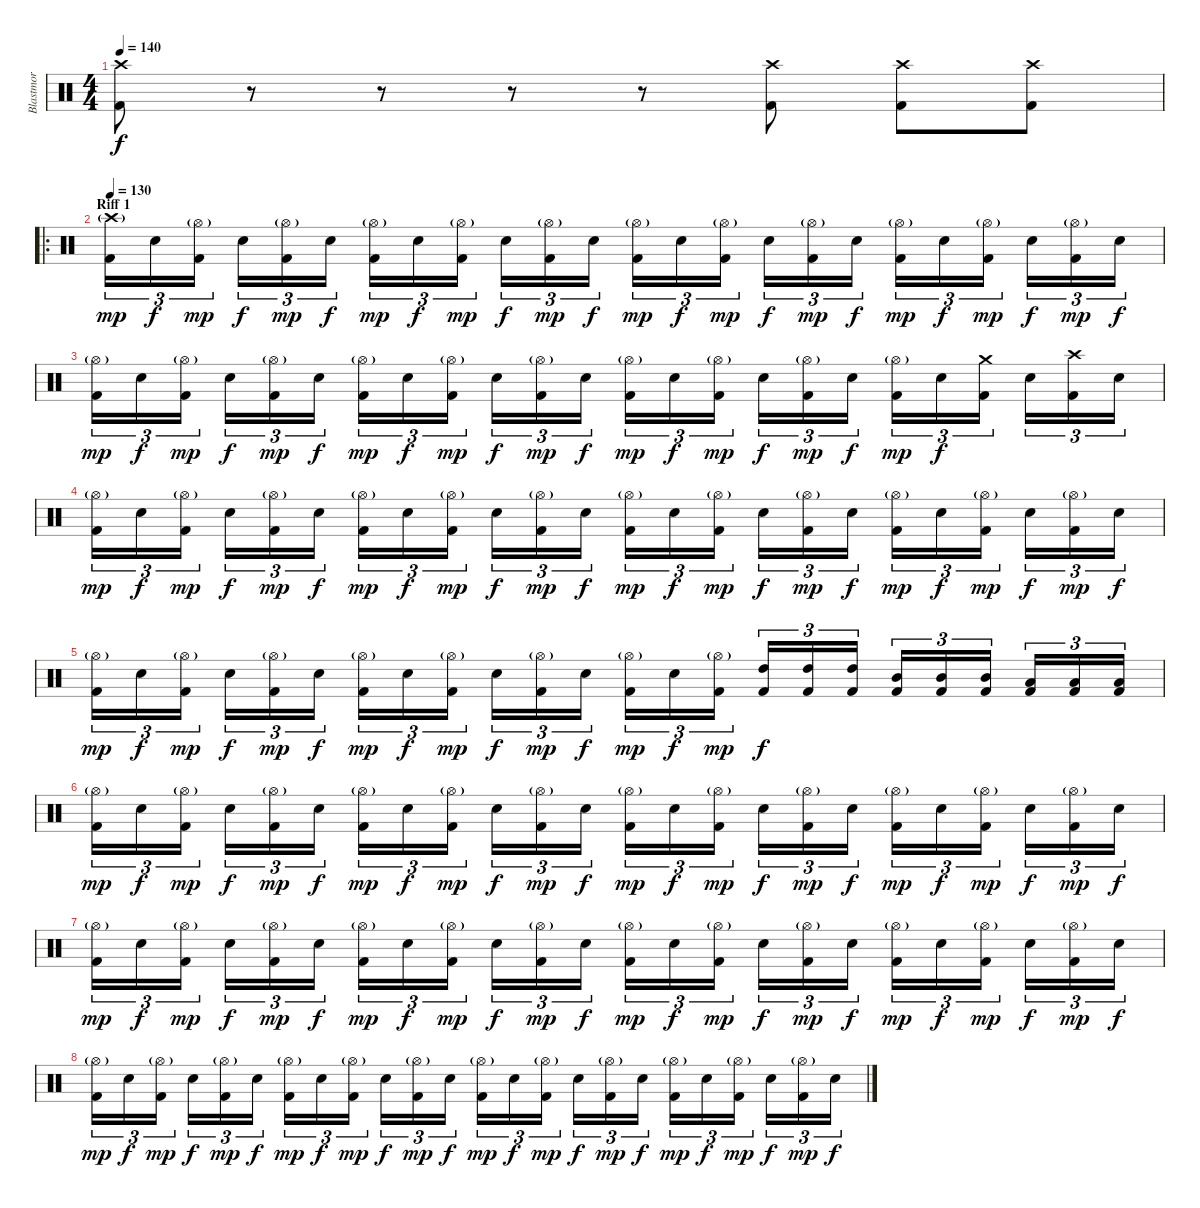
\track ("Blastmor" "Blastmor") {instrument percussion}
\staff {score}
\articulation defaults
\ts (4 4)
\section ("" "")
\tempo 130
\tempo 140
\clef neutral
\ks c
("Crash high (hit)" "Kick (hit) 2").8{dy f} r.8 r.8 r.8 r.8 ("Crash high (hit)" "Kick (hit) 2").8 ("Crash high (hit)" "Kick (hit) 2").8 ("Crash high (hit)" "Kick (hit) 2").8 |
\ro
\section ("" "Riff 1")
\tempo 130
("Crash high (hit)"{g} "Kick (hit) 2").16{tu (3 2) dy mp} "Electric Snare (hit)".16{tu (3 2) dy f} ("Hi-Hat (open)"{g} "Kick (hit) 2").16{tu (3 2) dy mp} "Electric Snare (hit)".16{tu (3 2) dy f} ("Hi-Hat (open)"{g} "Kick (hit) 2").16{tu (3 2) dy mp} "Electric Snare (hit)".16{tu (3 2) dy f} ("Hi-Hat (open)"{g} "Kick (hit) 2").16{tu (3 2) dy mp} "Electric Snare (hit)".16{tu (3 2) dy f} ("Hi-Hat (open)"{g} "Kick (hit) 2").16{tu (3 2) dy mp} "Electric Snare (hit)".16{tu (3 2) dy f} ("Hi-Hat (open)"{g} "Kick (hit) 2").16{tu (3 2) dy mp} "Electric Snare (hit)".16{tu (3 2) dy f} ("Hi-Hat (open)"{g} "Kick (hit) 2").16{tu (3 2) dy mp} "Electric Snare (hit)".16{tu (3 2) dy f} ("Hi-Hat (open)"{g} "Kick (hit) 2").16{tu (3 2) dy mp} "Electric Snare (hit)".16{tu (3 2) dy f} ("Hi-Hat (open)"{g} "Kick (hit) 2").16{tu (3 2) dy mp} "Electric Snare (hit)".16{tu (3 2) dy f} ("Hi-Hat (open)"{g} "Kick (hit) 2").16{tu (3 2) dy mp} "Electric Snare (hit)".16{tu (3 2) dy f} ("Hi-Hat (open)"{g} "Kick (hit) 2").16{tu (3 2) dy mp} "Electric Snare (hit)".16{tu (3 2) dy f} ("Hi-Hat (open)"{g} "Kick (hit) 2").16{tu (3 2) dy mp} "Electric Snare (hit)".16{tu (3 2) dy f} |
("Hi-Hat (open)"{g} "Kick (hit) 2").16{tu (3 2) dy mp} "Electric Snare (hit)".16{tu (3 2) dy f} ("Hi-Hat (open)"{g} "Kick (hit) 2").16{tu (3 2) dy mp} "Electric Snare (hit)".16{tu (3 2) dy f} ("Hi-Hat (open)"{g} "Kick (hit) 2").16{tu (3 2) dy mp} "Electric Snare (hit)".16{tu (3 2) dy f} ("Hi-Hat (open)"{g} "Kick (hit) 2").16{tu (3 2) dy mp} "Electric Snare (hit)".16{tu (3 2) dy f} ("Hi-Hat (open)"{g} "Kick (hit) 2").16{tu (3 2) dy mp} "Electric Snare (hit)".16{tu (3 2) dy f} ("Hi-Hat (open)"{g} "Kick (hit) 2").16{tu (3 2) dy mp} "Electric Snare (hit)".16{tu (3 2) dy f} ("Hi-Hat (open)"{g} "Kick (hit) 2").16{tu (3 2) dy mp} "Electric Snare (hit)".16{tu (3 2) dy f} ("Hi-Hat (open)"{g} "Kick (hit) 2").16{tu (3 2) dy mp} "Electric Snare (hit)".16{tu (3 2) dy f} ("Hi-Hat (open)"{g} "Kick (hit) 2").16{tu (3 2) dy mp} "Electric Snare (hit)".16{tu (3 2) dy f} ("Hi-Hat (open)"{g} "Kick (hit) 2").16{tu (3 2) dy mp} "Electric Snare (hit)".16{tu (3 2) dy f} ("Crash medium (hit)" "Kick (hit) 2").16{tu (3 2)} "Electric Snare (hit)".16{tu (3 2)} ("Crash high (hit)" "Kick (hit) 2").16{tu (3 2)} "Electric Snare (hit)".16{tu (3 2)} |
("Hi-Hat (open)"{g} "Kick (hit) 2").16{tu (3 2) dy mp} "Electric Snare (hit)".16{tu (3 2) dy f} ("Hi-Hat (open)"{g} "Kick (hit) 2").16{tu (3 2) dy mp} "Electric Snare (hit)".16{tu (3 2) dy f} ("Hi-Hat (open)"{g} "Kick (hit) 2").16{tu (3 2) dy mp} "Electric Snare (hit)".16{tu (3 2) dy f} ("Hi-Hat (open)"{g} "Kick (hit) 2").16{tu (3 2) dy mp} "Electric Snare (hit)".16{tu (3 2) dy f} ("Hi-Hat (open)"{g} "Kick (hit) 2").16{tu (3 2) dy mp} "Electric Snare (hit)".16{tu (3 2) dy f} ("Hi-Hat (open)"{g} "Kick (hit) 2").16{tu (3 2) dy mp} "Electric Snare (hit)".16{tu (3 2) dy f} ("Hi-Hat (open)"{g} "Kick (hit) 2").16{tu (3 2) dy mp} "Electric Snare (hit)".16{tu (3 2) dy f} ("Hi-Hat (open)"{g} "Kick (hit) 2").16{tu (3 2) dy mp} "Electric Snare (hit)".16{tu (3 2) dy f} ("Hi-Hat (open)"{g} "Kick (hit) 2").16{tu (3 2) dy mp} "Electric Snare (hit)".16{tu (3 2) dy f} ("Hi-Hat (open)"{g} "Kick (hit) 2").16{tu (3 2) dy mp} "Electric Snare (hit)".16{tu (3 2) dy f} ("Hi-Hat (open)"{g} "Kick (hit) 2").16{tu (3 2) dy mp} "Electric Snare (hit)".16{tu (3 2) dy f} ("Hi-Hat (open)"{g} "Kick (hit) 2").16{tu (3 2) dy mp} "Electric Snare (hit)".16{tu (3 2) dy f} |
("Hi-Hat (open)"{g} "Kick (hit) 2").16{tu (3 2) dy mp} "Electric Snare (hit)".16{tu (3 2) dy f} ("Hi-Hat (open)"{g} "Kick (hit) 2").16{tu (3 2) dy mp} "Electric Snare (hit)".16{tu (3 2) dy f} ("Hi-Hat (open)"{g} "Kick (hit) 2").16{tu (3 2) dy mp} "Electric Snare (hit)".16{tu (3 2) dy f} ("Hi-Hat (open)"{g} "Kick (hit) 2").16{tu (3 2) dy mp} "Electric Snare (hit)".16{tu (3 2) dy f} ("Hi-Hat (open)"{g} "Kick (hit) 2").16{tu (3 2) dy mp} "Electric Snare (hit)".16{tu (3 2) dy f} ("Hi-Hat (open)"{g} "Kick (hit) 2").16{tu (3 2) dy mp} "Electric Snare (hit)".16{tu (3 2) dy f} ("Hi-Hat (open)"{g} "Kick (hit) 2").16{tu (3 2) dy mp} "Electric Snare (hit)".16{tu (3 2) dy f} ("Hi-Hat (open)"{g} "Kick (hit) 2").16{tu (3 2) dy mp} ("High Tom (hit)" "Kick (hit) 2").16{tu (3 2) dy f} ("High Tom (hit)" "Kick (hit) 2").16{tu (3 2)} ("High Tom (hit)" "Kick (hit) 2").16{tu (3 2)} ("Mid Tom (hit)" "Kick (hit) 2").16{tu (3 2)} ("Mid Tom (hit)" "Kick (hit) 2").16{tu (3 2)} ("Mid Tom (hit)" "Kick (hit) 2").16{tu (3 2)} ("Low Tom (hit)" "Kick (hit) 2").16{tu (3 2)} ("Low Tom (hit)" "Kick (hit) 2").16{tu (3 2)} ("Low Tom (hit)" "Kick (hit) 2").16{tu (3 2)} |
("Hi-Hat (open)"{g} "Kick (hit) 2").16{tu (3 2) dy mp} "Electric Snare (hit)".16{tu (3 2) dy f} ("Hi-Hat (open)"{g} "Kick (hit) 2").16{tu (3 2) dy mp} "Electric Snare (hit)".16{tu (3 2) dy f} ("Hi-Hat (open)"{g} "Kick (hit) 2").16{tu (3 2) dy mp} "Electric Snare (hit)".16{tu (3 2) dy f} ("Hi-Hat (open)"{g} "Kick (hit) 2").16{tu (3 2) dy mp} "Electric Snare (hit)".16{tu (3 2) dy f} ("Hi-Hat (open)"{g} "Kick (hit) 2").16{tu (3 2) dy mp} "Electric Snare (hit)".16{tu (3 2) dy f} ("Hi-Hat (open)"{g} "Kick (hit) 2").16{tu (3 2) dy mp} "Electric Snare (hit)".16{tu (3 2) dy f} ("Hi-Hat (open)"{g} "Kick (hit) 2").16{tu (3 2) dy mp} "Electric Snare (hit)".16{tu (3 2) dy f} ("Hi-Hat (open)"{g} "Kick (hit) 2").16{tu (3 2) dy mp} "Electric Snare (hit)".16{tu (3 2) dy f} ("Hi-Hat (open)"{g} "Kick (hit) 2").16{tu (3 2) dy mp} "Electric Snare (hit)".16{tu (3 2) dy f} ("Hi-Hat (open)"{g} "Kick (hit) 2").16{tu (3 2) dy mp} "Electric Snare (hit)".16{tu (3 2) dy f} ("Hi-Hat (open)"{g} "Kick (hit) 2").16{tu (3 2) dy mp} "Electric Snare (hit)".16{tu (3 2) dy f} ("Hi-Hat (open)"{g} "Kick (hit) 2").16{tu (3 2) dy mp} "Electric Snare (hit)".16{tu (3 2) dy f} |
("Hi-Hat (open)"{g} "Kick (hit) 2").16{tu (3 2) dy mp} "Electric Snare (hit)".16{tu (3 2) dy f} ("Hi-Hat (open)"{g} "Kick (hit) 2").16{tu (3 2) dy mp} "Electric Snare (hit)".16{tu (3 2) dy f} ("Hi-Hat (open)"{g} "Kick (hit) 2").16{tu (3 2) dy mp} "Electric Snare (hit)".16{tu (3 2) dy f} ("Hi-Hat (open)"{g} "Kick (hit) 2").16{tu (3 2) dy mp} "Electric Snare (hit)".16{tu (3 2) dy f} ("Hi-Hat (open)"{g} "Kick (hit) 2").16{tu (3 2) dy mp} "Electric Snare (hit)".16{tu (3 2) dy f} ("Hi-Hat (open)"{g} "Kick (hit) 2").16{tu (3 2) dy mp} "Electric Snare (hit)".16{tu (3 2) dy f} ("Hi-Hat (open)"{g} "Kick (hit) 2").16{tu (3 2) dy mp} "Electric Snare (hit)".16{tu (3 2) dy f} ("Hi-Hat (open)"{g} "Kick (hit) 2").16{tu (3 2) dy mp} "Electric Snare (hit)".16{tu (3 2) dy f} ("Hi-Hat (open)"{g} "Kick (hit) 2").16{tu (3 2) dy mp} "Electric Snare (hit)".16{tu (3 2) dy f} ("Hi-Hat (open)"{g} "Kick (hit) 2").16{tu (3 2) dy mp} "Electric Snare (hit)".16{tu (3 2) dy f} ("Hi-Hat (open)"{g} "Kick (hit) 2").16{tu (3 2) dy mp} "Electric Snare (hit)".16{tu (3 2) dy f} ("Hi-Hat (open)"{g} "Kick (hit) 2").16{tu (3 2) dy mp} "Electric Snare (hit)".16{tu (3 2) dy f} |
("Hi-Hat (open)"{g} "Kick (hit) 2").16{tu (3 2) dy mp} "Electric Snare (hit)".16{tu (3 2) dy f} ("Hi-Hat (open)"{g} "Kick (hit) 2").16{tu (3 2) dy mp} "Electric Snare (hit)".16{tu (3 2) dy f} ("Hi-Hat (open)"{g} "Kick (hit) 2").16{tu (3 2) dy mp} "Electric Snare (hit)".16{tu (3 2) dy f} ("Hi-Hat (open)"{g} "Kick (hit) 2").16{tu (3 2) dy mp} "Electric Snare (hit)".16{tu (3 2) dy f} ("Hi-Hat (open)"{g} "Kick (hit) 2").16{tu (3 2) dy mp} "Electric Snare (hit)".16{tu (3 2) dy f} ("Hi-Hat (open)"{g} "Kick (hit) 2").16{tu (3 2) dy mp} "Electric Snare (hit)".16{tu (3 2) dy f} ("Hi-Hat (open)"{g} "Kick (hit) 2").16{tu (3 2) dy mp} "Electric Snare (hit)".16{tu (3 2) dy f} ("Hi-Hat (open)"{g} "Kick (hit) 2").16{tu (3 2) dy mp} "Electric Snare (hit)".16{tu (3 2) dy f} ("Hi-Hat (open)"{g} "Kick (hit) 2").16{tu (3 2) dy mp} "Electric Snare (hit)".16{tu (3 2) dy f} ("Hi-Hat (open)"{g} "Kick (hit) 2").16{tu (3 2) dy mp} "Electric Snare (hit)".16{tu (3 2) dy f} ("Hi-Hat (open)"{g} "Kick (hit) 2").16{tu (3 2) dy mp} "Electric Snare (hit)".16{tu (3 2) dy f} ("Hi-Hat (open)"{g} "Kick (hit) 2").16{tu (3 2) dy mp} "Electric Snare (hit)".16{tu (3 2) dy f}
